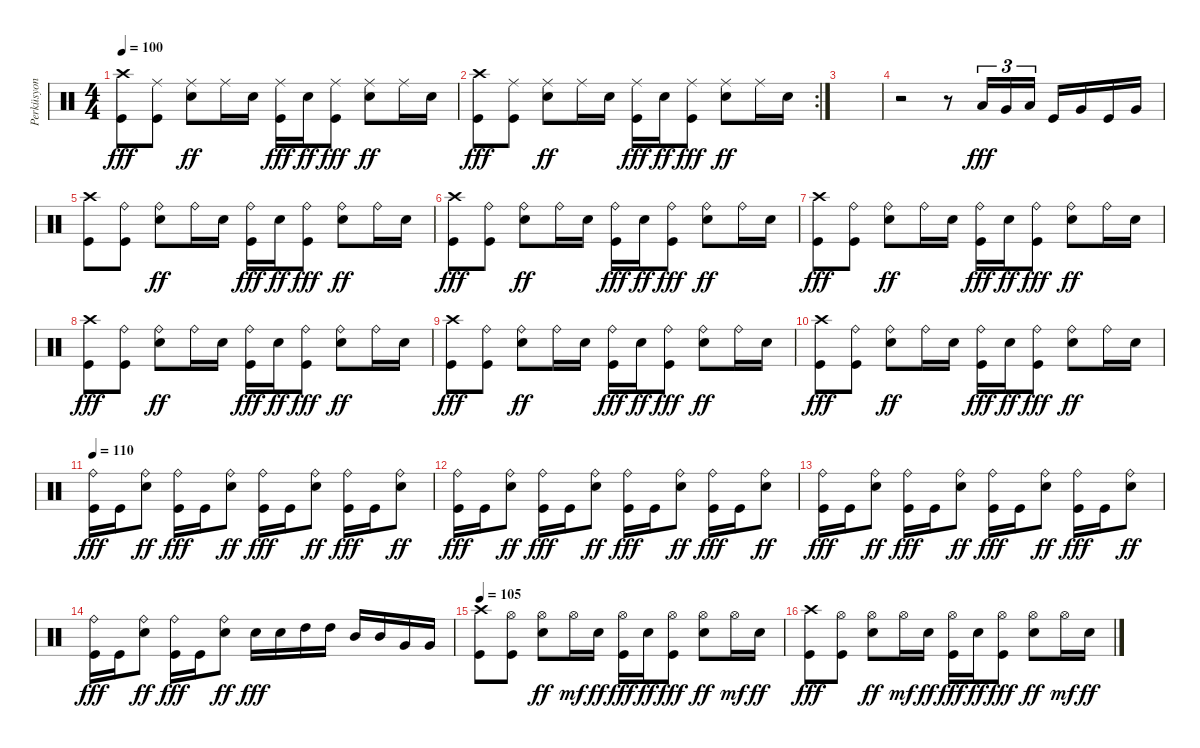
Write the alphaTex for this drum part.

\track ("Perküsyon" "Perküsyon") {instrument percussion}
\staff {score}
\articulation defaults
\ts (4 4)
\tempo 100
\clef neutral
\ks c
("Crash high (hit)" "Kick (hit)").8{dy fff} ("Ride (middle)" "Kick (hit)").8 ("Ride (middle)" "Snare (hit) 2").8{dy ff} "Ride (middle)".16 "Snare (hit) 2".16 ("Ride (middle)" "Kick (hit)").16{dy fff} "Snare (hit) 2".16{dy ff} ("Ride (middle)" "Kick (hit)").8{dy fff} ("Ride (middle)" "Snare (hit) 2").8{dy ff} "Ride (middle)".16 "Snare (hit) 2".16 |
\rc 2
("Crash high (hit)" "Kick (hit)").8{dy fff} ("Ride (middle)" "Kick (hit)").8 ("Ride (middle)" "Snare (hit) 2").8{dy ff} "Ride (middle)".16 "Snare (hit) 2".16 ("Ride (middle)" "Kick (hit)").16{dy fff} "Snare (hit) 2".16{dy ff} ("Ride (middle)" "Kick (hit)").8{dy fff} ("Ride (middle)" "Snare (hit) 2").8{dy ff} "Ride (middle)".16 "Snare (hit) 2".16 |
|
r.2 r.8 "Low Floor Tom (hit)".16{tu (3 2) dy fff} "Very Low Tom (hit)".16{tu (3 2)} "Low Floor Tom (hit)".16{tu (3 2)} "Kick (hit)".16 "Very Low Tom (hit)".16 "Kick (hit)".16 "Very Low Tom (hit)".16 |
("Crash high (hit)" "Kick (hit)").8 ("Ride (bell)" "Kick (hit)").8 ("Ride (bell)" "Snare (hit) 2").8{dy ff} "Ride (bell)".16 "Snare (hit) 2".16 ("Ride (bell)" "Kick (hit)").16{dy fff} "Snare (hit) 2".16{dy ff} ("Ride (bell)" "Kick (hit)").8{dy fff} ("Ride (bell)" "Snare (hit) 2").8{dy ff} "Ride (bell)".16 "Snare (hit) 2".16 |
("Crash high (hit)" "Kick (hit)").8{dy fff} ("Ride (bell)" "Kick (hit)").8 ("Ride (bell)" "Snare (hit) 2").8{dy ff} "Ride (bell)".16 "Snare (hit) 2".16 ("Ride (bell)" "Kick (hit)").16{dy fff} "Snare (hit) 2".16{dy ff} ("Ride (bell)" "Kick (hit)").8{dy fff} ("Ride (bell)" "Snare (hit) 2").8{dy ff} "Ride (bell)".16 "Snare (hit) 2".16 |
("Crash high (hit)" "Kick (hit)").8{dy fff} ("Ride (bell)" "Kick (hit)").8 ("Ride (bell)" "Snare (hit) 2").8{dy ff} "Ride (bell)".16 "Snare (hit) 2".16 ("Ride (bell)" "Kick (hit)").16{dy fff} "Snare (hit) 2".16{dy ff} ("Ride (bell)" "Kick (hit)").8{dy fff} ("Ride (bell)" "Snare (hit) 2").8{dy ff} "Ride (bell)".16 "Snare (hit) 2".16 |
("Crash high (hit)" "Kick (hit)").8{dy fff} ("Ride (bell)" "Kick (hit)").8 ("Ride (bell)" "Snare (hit) 2").8{dy ff} "Ride (bell)".16 "Snare (hit) 2".16 ("Ride (bell)" "Kick (hit)").16{dy fff} "Snare (hit) 2".16{dy ff} ("Ride (bell)" "Kick (hit)").8{dy fff} ("Ride (bell)" "Snare (hit) 2").8{dy ff} "Ride (bell)".16 "Snare (hit) 2".16 |
("Crash high (hit)" "Kick (hit)").8{dy fff} ("Ride (bell)" "Kick (hit)").8 ("Ride (bell)" "Snare (hit) 2").8{dy ff} "Ride (bell)".16 "Snare (hit) 2".16 ("Ride (bell)" "Kick (hit)").16{dy fff} "Snare (hit) 2".16{dy ff} ("Ride (bell)" "Kick (hit)").8{dy fff} ("Ride (bell)" "Snare (hit) 2").8{dy ff} "Ride (bell)".16 "Snare (hit) 2".16 |
("Crash high (hit)" "Kick (hit)").8{dy fff} ("Ride (bell)" "Kick (hit)").8 ("Ride (bell)" "Snare (hit) 2").8{dy ff} "Ride (bell)".16 "Snare (hit) 2".16 ("Ride (bell)" "Kick (hit)").16{dy fff} "Snare (hit) 2".16{dy ff} ("Ride (bell)" "Kick (hit)").8{dy fff} ("Ride (bell)" "Snare (hit) 2").8{dy ff} "Ride (bell)".16 "Snare (hit) 2".16 |
\tempo 110
("Ride (bell)" "Kick (hit)").16{dy fff} "Kick (hit)".16 ("Ride (bell)" "Snare (hit) 2").8{dy ff} ("Ride (bell)" "Kick (hit)").16{dy fff} "Kick (hit)".16 ("Ride (bell)" "Snare (hit) 2").8{dy ff} ("Ride (bell)" "Kick (hit)").16{dy fff} "Kick (hit)".16 ("Ride (bell)" "Snare (hit) 2").8{dy ff} ("Ride (bell)" "Kick (hit)").16{dy fff} "Kick (hit)".16 ("Ride (bell)" "Snare (hit) 2").8{dy ff} |
("Ride (bell)" "Kick (hit)").16{dy fff} "Kick (hit)".16 ("Ride (bell)" "Snare (hit) 2").8{dy ff} ("Ride (bell)" "Kick (hit)").16{dy fff} "Kick (hit)".16 ("Ride (bell)" "Snare (hit) 2").8{dy ff} ("Ride (bell)" "Kick (hit)").16{dy fff} "Kick (hit)".16 ("Ride (bell)" "Snare (hit) 2").8{dy ff} ("Ride (bell)" "Kick (hit)").16{dy fff} "Kick (hit)".16 ("Ride (bell)" "Snare (hit) 2").8{dy ff} |
("Ride (bell)" "Kick (hit)").16{dy fff} "Kick (hit)".16 ("Ride (bell)" "Snare (hit) 2").8{dy ff} ("Ride (bell)" "Kick (hit)").16{dy fff} "Kick (hit)".16 ("Ride (bell)" "Snare (hit) 2").8{dy ff} ("Ride (bell)" "Kick (hit)").16{dy fff} "Kick (hit)".16 ("Ride (bell)" "Snare (hit) 2").8{dy ff} ("Ride (bell)" "Kick (hit)").16{dy fff} "Kick (hit)".16 ("Ride (bell)" "Snare (hit) 2").8{dy ff} |
("Ride (bell)" "Kick (hit)").16{dy fff} "Kick (hit)".16 ("Ride (bell)" "Snare (hit) 2").8{dy ff} ("Ride (bell)" "Kick (hit)").16{dy fff} "Kick (hit)".16 ("Ride (bell)" "Snare (hit) 2").8{dy ff} "Snare (hit) 2".16{dy fff} "Snare (hit) 2".16 "High Tom (hit)".16 "High Tom (hit)".16 "Mid Tom (hit)".16 "Mid Tom (hit)".16 "Very Low Tom (hit)".16 "Very Low Tom (hit)".16 |
\tempo 105
("Crash high (hit)" "Kick (hit)").8 ("Hi-Hat (open)" "Kick (hit)").8 ("Hi-Hat (open)" "Snare (hit) 2").8{dy ff} "Hi-Hat (open)".16{dy mf} "Snare (hit) 2".16{dy ff} ("Hi-Hat (open)" "Kick (hit)").16{dy fff} "Snare (hit) 2".16{dy ff} ("Hi-Hat (open)" "Kick (hit)").8{dy fff} ("Hi-Hat (open)" "Snare (hit) 2").8{dy ff} "Hi-Hat (open)".16{dy mf} "Snare (hit) 2".16{dy ff} |
("Crash high (hit)" "Kick (hit)").8{dy fff} ("Hi-Hat (open)" "Kick (hit)").8 ("Hi-Hat (open)" "Snare (hit) 2").8{dy ff} "Hi-Hat (open)".16{dy mf} "Snare (hit) 2".16{dy ff} ("Hi-Hat (open)" "Kick (hit)").16{dy fff} "Snare (hit) 2".16{dy ff} ("Hi-Hat (open)" "Kick (hit)").8{dy fff} ("Hi-Hat (open)" "Snare (hit) 2").8{dy ff} "Hi-Hat (open)".16{dy mf} "Snare (hit) 2".16{dy ff}
